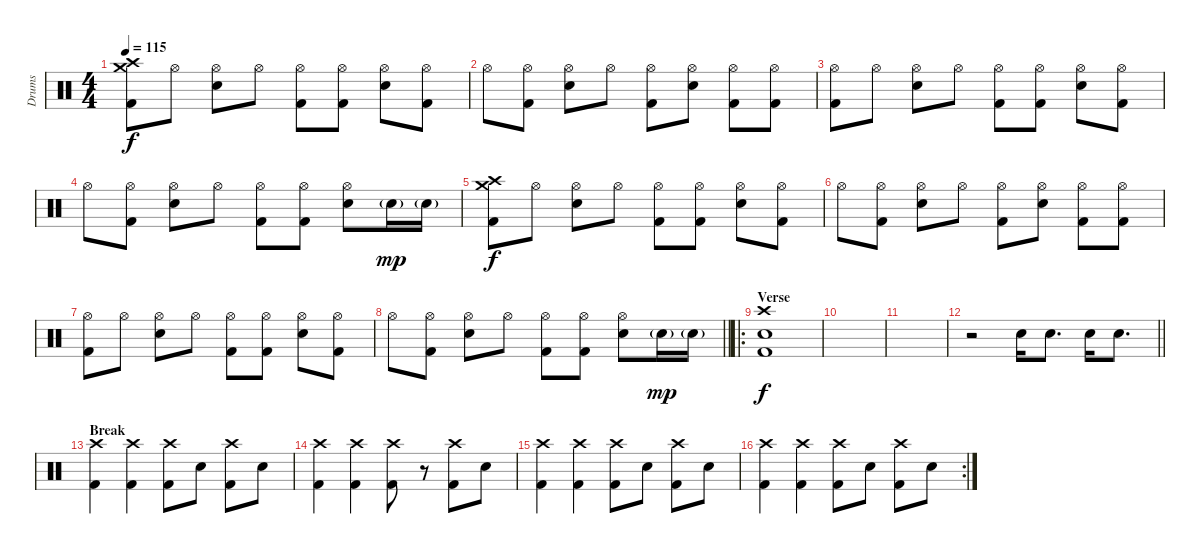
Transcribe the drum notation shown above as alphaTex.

\track ("Drums" "Drums") {instrument percussion}
\staff {score}
\articulation defaults
\ts (4 4)
\tempo 115
\clef neutral
\ks c
("Crash high (hit)" "Crash medium (hit)" "Kick (hit) 2").8{dy f} "Hi-Hat (open)".8 ("Hi-Hat (open)" "Electric Snare (hit)").8 "Hi-Hat (open)".8 ("Hi-Hat (open)" "Kick (hit) 2").8 ("Hi-Hat (open)" "Kick (hit) 2").8 ("Hi-Hat (open)" "Electric Snare (hit)").8 ("Hi-Hat (open)" "Kick (hit) 2").8 |
"Hi-Hat (open)".8 ("Hi-Hat (open)" "Kick (hit) 2").8 ("Hi-Hat (open)" "Electric Snare (hit)").8 "Hi-Hat (open)".8 ("Hi-Hat (open)" "Kick (hit) 2").8 ("Hi-Hat (open)" "Electric Snare (hit)").8 ("Hi-Hat (open)" "Kick (hit) 2").8 ("Hi-Hat (open)" "Kick (hit) 2").8 |
("Hi-Hat (open)" "Kick (hit) 2").8 "Hi-Hat (open)".8 ("Hi-Hat (open)" "Electric Snare (hit)").8 "Hi-Hat (open)".8 ("Hi-Hat (open)" "Kick (hit) 2").8 ("Hi-Hat (open)" "Kick (hit) 2").8 ("Hi-Hat (open)" "Electric Snare (hit)").8 ("Hi-Hat (open)" "Kick (hit) 2").8 |
"Hi-Hat (open)".8 ("Hi-Hat (open)" "Kick (hit) 2").8 ("Hi-Hat (open)" "Electric Snare (hit)").8 "Hi-Hat (open)".8 ("Hi-Hat (open)" "Kick (hit) 2").8 ("Hi-Hat (open)" "Kick (hit) 2").8 ("Hi-Hat (open)" "Electric Snare (hit)").8 "Electric Snare (hit)"{g}.16{dy mp} "Electric Snare (hit)"{g}.16 |
("Crash high (hit)" "Crash medium (hit)" "Kick (hit) 2").8{dy f} "Hi-Hat (open)".8 ("Hi-Hat (open)" "Electric Snare (hit)").8 "Hi-Hat (open)".8 ("Hi-Hat (open)" "Kick (hit) 2").8 ("Hi-Hat (open)" "Kick (hit) 2").8 ("Hi-Hat (open)" "Electric Snare (hit)").8 ("Hi-Hat (open)" "Kick (hit) 2").8 |
"Hi-Hat (open)".8 ("Hi-Hat (open)" "Kick (hit) 2").8 ("Hi-Hat (open)" "Electric Snare (hit)").8 "Hi-Hat (open)".8 ("Hi-Hat (open)" "Kick (hit) 2").8 ("Hi-Hat (open)" "Electric Snare (hit)").8 ("Hi-Hat (open)" "Kick (hit) 2").8 ("Hi-Hat (open)" "Kick (hit) 2").8 |
("Hi-Hat (open)" "Kick (hit) 2").8 "Hi-Hat (open)".8 ("Hi-Hat (open)" "Electric Snare (hit)").8 "Hi-Hat (open)".8 ("Hi-Hat (open)" "Kick (hit) 2").8 ("Hi-Hat (open)" "Kick (hit) 2").8 ("Hi-Hat (open)" "Electric Snare (hit)").8 ("Hi-Hat (open)" "Kick (hit) 2").8 |
\barLineRight lightlight "Hi-Hat (open)".8
("Hi-Hat (open)" "Kick (hit) 2").8 ("Hi-Hat (open)" "Electric Snare (hit)").8 "Hi-Hat (open)".8 ("Hi-Hat (open)" "Kick (hit) 2").8 ("Hi-Hat (open)" "Kick (hit) 2").8 ("Hi-Hat (open)" "Electric Snare (hit)").8 "Electric Snare (hit)"{g}.16{dy mp} "Electric Snare (hit)"{g}.16 |
\ro
\section ("" "Verse")
("Crash high (hit)" "Electric Snare (hit)" "Kick (hit) 2").1{dy f} |
|
|
\barLineRight lightlight
r.2 "Electric Snare (hit)".16 "Electric Snare (hit)".8{d} "Electric Snare (hit)".16 "Electric Snare (hit)".8{d} |
\section ("" "Break")
("Crash high (hit)" "Kick (hit) 2").4 ("Crash high (hit)" "Kick (hit) 2").4 ("Crash high (hit)" "Kick (hit) 2").8 "Electric Snare (hit)".8 ("Crash high (hit)" "Kick (hit) 2").8 "Electric Snare (hit)".8 |
("Crash high (hit)" "Kick (hit) 2").4 ("Crash high (hit)" "Kick (hit) 2").4 ("Crash high (hit)" "Kick (hit) 2").8 r.8 ("Crash high (hit)" "Kick (hit) 2").8 "Electric Snare (hit)".8 |
("Crash high (hit)" "Kick (hit) 2").4 ("Crash high (hit)" "Kick (hit) 2").4 ("Crash high (hit)" "Kick (hit) 2").8 "Electric Snare (hit)".8 ("Crash high (hit)" "Kick (hit) 2").8 "Electric Snare (hit)".8 |
\rc 2
("Crash high (hit)" "Kick (hit) 2").4 ("Crash high (hit)" "Kick (hit) 2").4 ("Crash high (hit)" "Kick (hit) 2").8 "Electric Snare (hit)".8 ("Crash high (hit)" "Kick (hit) 2").8 "Electric Snare (hit)".8
